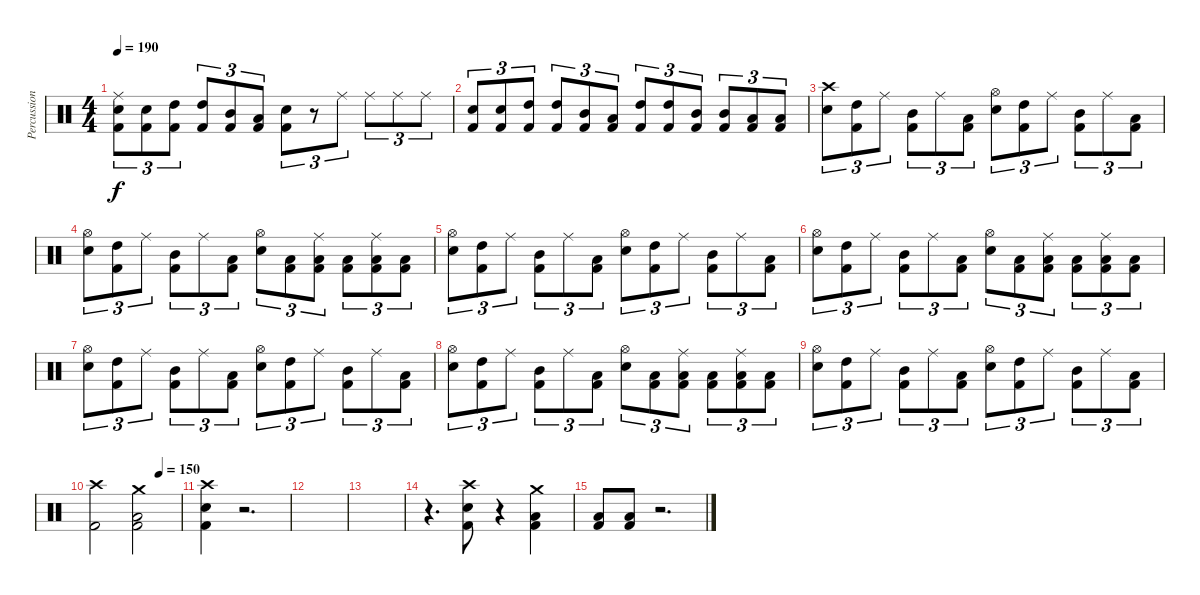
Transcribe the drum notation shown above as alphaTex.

\track ("Percussions" "Percussion") {instrument percussion}
\staff {score}
\articulation defaults
\ts (4 4)
\tempo 190
\clef neutral
\ks c
("Ride (middle)" "Snare (hit) 2" "Kick (hit) 2").8{tu (3 2) dy f} ("Snare (hit) 2" "Kick (hit) 2").8{tu (3 2)} ("High Tom (hit)" "Kick (hit) 2").8{tu (3 2)} ("High Tom (hit)" "Kick (hit) 2").8{tu (3 2)} ("Mid Tom (hit)" "Kick (hit) 2").8{tu (3 2)} ("Low Tom (hit)" "Kick (hit) 2").8{tu (3 2)} ("Snare (hit) 2" "Kick (hit) 2").8{tu (3 2)} r.8{tu (3 2)} "Ride (middle)".8{tu (3 2)} "Ride (middle)".8{tu (3 2)} "Ride (middle)".8{tu (3 2)} "Ride (middle)".8{tu (3 2)} |
("Snare (hit) 2" "Kick (hit) 2").8{tu (3 2)} ("Snare (hit) 2" "Kick (hit) 2").8{tu (3 2)} ("High Tom (hit)" "Kick (hit) 2").8{tu (3 2)} ("High Tom (hit)" "Kick (hit) 2").8{tu (3 2)} ("Mid Tom (hit)" "Kick (hit) 2").8{tu (3 2)} ("Low Tom (hit)" "Kick (hit) 2").8{tu (3 2)} ("High Tom (hit)" "Kick (hit) 2").8{tu (3 2)} ("High Tom (hit)" "Kick (hit) 2").8{tu (3 2)} ("Mid Tom (hit)" "Kick (hit) 2").8{tu (3 2)} ("Mid Tom (hit)" "Kick (hit) 2").8{tu (3 2)} ("Low Tom (hit)" "Kick (hit) 2").8{tu (3 2)} ("Low Tom (hit)" "Kick (hit) 2").8{tu (3 2)} |
("Crash high (hit)" "Snare (hit) 2").8{tu (3 2)} ("High Tom (hit)" "Kick (hit) 2").8{tu (3 2)} "Ride (middle)".8{tu (3 2)} ("Mid Tom (hit)" "Kick (hit) 2").8{tu (3 2)} "Ride (middle)".8{tu (3 2)} ("Low Tom (hit)" "Kick (hit) 2").8{tu (3 2)} ("Hi-Hat (open)" "Snare (hit) 2").8{tu (3 2)} ("High Tom (hit)" "Kick (hit) 2").8{tu (3 2)} "Ride (middle)".8{tu (3 2)} ("Mid Tom (hit)" "Kick (hit) 2").8{tu (3 2)} "Ride (middle)".8{tu (3 2)} ("Low Tom (hit)" "Kick (hit) 2").8{tu (3 2)} |
("Hi-Hat (open)" "Snare (hit) 2").8{tu (3 2)} ("High Tom (hit)" "Kick (hit) 2").8{tu (3 2)} "Ride (middle)".8{tu (3 2)} ("Mid Tom (hit)" "Kick (hit) 2").8{tu (3 2)} "Ride (middle)".8{tu (3 2)} ("Low Tom (hit)" "Kick (hit) 2").8{tu (3 2)} ("Hi-Hat (open)" "Snare (hit) 2").8{tu (3 2)} ("Low Floor Tom (hit)" "Kick (hit) 2").8{tu (3 2)} ("Ride (middle)" "Low Floor Tom (hit)" "Kick (hit) 2").8{tu (3 2)} ("Low Floor Tom (hit)" "Kick (hit) 2").8{tu (3 2)} ("Ride (middle)" "Low Floor Tom (hit)" "Kick (hit) 2").8{tu (3 2)} ("Low Floor Tom (hit)" "Kick (hit) 2").8{tu (3 2)} |
("Hi-Hat (open)" "Snare (hit) 2").8{tu (3 2)} ("High Tom (hit)" "Kick (hit) 2").8{tu (3 2)} "Ride (middle)".8{tu (3 2)} ("Mid Tom (hit)" "Kick (hit) 2").8{tu (3 2)} "Ride (middle)".8{tu (3 2)} ("Low Tom (hit)" "Kick (hit) 2").8{tu (3 2)} ("Hi-Hat (open)" "Snare (hit) 2").8{tu (3 2)} ("High Tom (hit)" "Kick (hit) 2").8{tu (3 2)} "Ride (middle)".8{tu (3 2)} ("Mid Tom (hit)" "Kick (hit) 2").8{tu (3 2)} "Ride (middle)".8{tu (3 2)} ("Low Tom (hit)" "Kick (hit) 2").8{tu (3 2)} |
("Hi-Hat (open)" "Snare (hit) 2").8{tu (3 2)} ("High Tom (hit)" "Kick (hit) 2").8{tu (3 2)} "Ride (middle)".8{tu (3 2)} ("Mid Tom (hit)" "Kick (hit) 2").8{tu (3 2)} "Ride (middle)".8{tu (3 2)} ("Low Tom (hit)" "Kick (hit) 2").8{tu (3 2)} ("Hi-Hat (open)" "Snare (hit) 2").8{tu (3 2)} ("Low Floor Tom (hit)" "Kick (hit) 2").8{tu (3 2)} ("Ride (middle)" "Low Floor Tom (hit)" "Kick (hit) 2").8{tu (3 2)} ("Low Floor Tom (hit)" "Kick (hit) 2").8{tu (3 2)} ("Ride (middle)" "Low Floor Tom (hit)" "Kick (hit) 2").8{tu (3 2)} ("Low Floor Tom (hit)" "Kick (hit) 2").8{tu (3 2)} |
("Hi-Hat (open)" "Snare (hit) 2").8{tu (3 2)} ("High Tom (hit)" "Kick (hit) 2").8{tu (3 2)} "Ride (middle)".8{tu (3 2)} ("Mid Tom (hit)" "Kick (hit) 2").8{tu (3 2)} "Ride (middle)".8{tu (3 2)} ("Low Tom (hit)" "Kick (hit) 2").8{tu (3 2)} ("Hi-Hat (open)" "Snare (hit) 2").8{tu (3 2)} ("High Tom (hit)" "Kick (hit) 2").8{tu (3 2)} "Ride (middle)".8{tu (3 2)} ("Mid Tom (hit)" "Kick (hit) 2").8{tu (3 2)} "Ride (middle)".8{tu (3 2)} ("Low Tom (hit)" "Kick (hit) 2").8{tu (3 2)} |
("Hi-Hat (open)" "Snare (hit) 2").8{tu (3 2)} ("High Tom (hit)" "Kick (hit) 2").8{tu (3 2)} "Ride (middle)".8{tu (3 2)} ("Mid Tom (hit)" "Kick (hit) 2").8{tu (3 2)} "Ride (middle)".8{tu (3 2)} ("Low Tom (hit)" "Kick (hit) 2").8{tu (3 2)} ("Hi-Hat (open)" "Snare (hit) 2").8{tu (3 2)} ("Low Floor Tom (hit)" "Kick (hit) 2").8{tu (3 2)} ("Ride (middle)" "Low Floor Tom (hit)" "Kick (hit) 2").8{tu (3 2)} ("Low Floor Tom (hit)" "Kick (hit) 2").8{tu (3 2)} ("Ride (middle)" "Low Floor Tom (hit)" "Kick (hit) 2").8{tu (3 2)} ("Low Floor Tom (hit)" "Kick (hit) 2").8{tu (3 2)} |
("Hi-Hat (open)" "Snare (hit) 2").8{tu (3 2)} ("High Tom (hit)" "Kick (hit) 2").8{tu (3 2)} "Ride (middle)".8{tu (3 2)} ("Mid Tom (hit)" "Kick (hit) 2").8{tu (3 2)} "Ride (middle)".8{tu (3 2)} ("Low Tom (hit)" "Kick (hit) 2").8{tu (3 2)} ("Hi-Hat (open)" "Snare (hit) 2").8{tu (3 2)} ("High Tom (hit)" "Kick (hit) 2").8{tu (3 2)} "Ride (middle)".8{tu (3 2)} ("Mid Tom (hit)" "Kick (hit) 2").8{tu (3 2)} "Ride (middle)".8{tu (3 2)} ("Low Tom (hit)" "Kick (hit) 2").8{tu (3 2)} |
\tempo (150 0.75)
("Crash high (hit)" "Kick (hit) 2").2 ("Crash medium (hit)" "Low Floor Tom (hit)" "Kick (hit) 2").2 |
("Crash high (hit)" "Snare (hit) 2" "Kick (hit) 2").4 r.2{d} |
|
|
r.4{d} ("Crash high (hit)" "Snare (hit) 2" "Kick (hit) 2").8 r.4 ("Crash medium (hit)" "Low Floor Tom (hit)" "Kick (hit) 2").4 |
("Low Floor Tom (hit)" "Kick (hit) 2").8 ("Low Floor Tom (hit)" "Kick (hit) 2").8 r.2{d}
